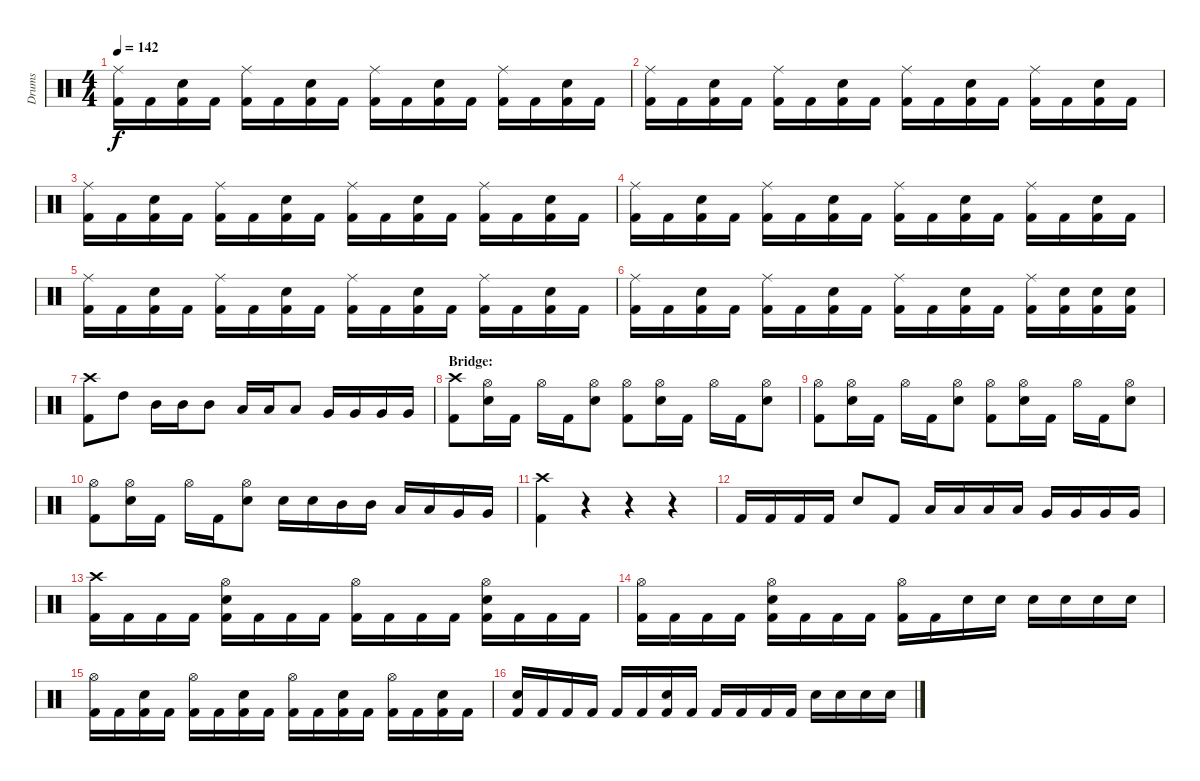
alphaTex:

\track ("Drums" "Drums") {instrument percussion}
\staff {score}
\articulation defaults
\ts (4 4)
\tempo 142
\clef neutral
\ks c
("Ride (middle)" "Kick (hit) 2").16{dy f} "Kick (hit) 2".16 ("Electric Snare (hit)" "Kick (hit) 2").16 "Kick (hit) 2".16 ("Ride (middle)" "Kick (hit) 2").16 "Kick (hit) 2".16 ("Electric Snare (hit)" "Kick (hit) 2").16 "Kick (hit) 2".16 ("Ride (middle)" "Kick (hit) 2").16 "Kick (hit) 2".16 ("Electric Snare (hit)" "Kick (hit) 2").16 "Kick (hit) 2".16 ("Ride (middle)" "Kick (hit) 2").16 "Kick (hit) 2".16 ("Electric Snare (hit)" "Kick (hit) 2").16 "Kick (hit) 2".16 |
("Ride (middle)" "Kick (hit) 2").16 "Kick (hit) 2".16 ("Electric Snare (hit)" "Kick (hit) 2").16 "Kick (hit) 2".16 ("Ride (middle)" "Kick (hit) 2").16 "Kick (hit) 2".16 ("Electric Snare (hit)" "Kick (hit) 2").16 "Kick (hit) 2".16 ("Ride (middle)" "Kick (hit) 2").16 "Kick (hit) 2".16 ("Electric Snare (hit)" "Kick (hit) 2").16 "Kick (hit) 2".16 ("Ride (middle)" "Kick (hit) 2").16 "Kick (hit) 2".16 ("Electric Snare (hit)" "Kick (hit) 2").16 "Kick (hit) 2".16 |
("Ride (middle)" "Kick (hit) 2").16 "Kick (hit) 2".16 ("Electric Snare (hit)" "Kick (hit) 2").16 "Kick (hit) 2".16 ("Ride (middle)" "Kick (hit) 2").16 "Kick (hit) 2".16 ("Electric Snare (hit)" "Kick (hit) 2").16 "Kick (hit) 2".16 ("Ride (middle)" "Kick (hit) 2").16 "Kick (hit) 2".16 ("Electric Snare (hit)" "Kick (hit) 2").16 "Kick (hit) 2".16 ("Ride (middle)" "Kick (hit) 2").16 "Kick (hit) 2".16 ("Electric Snare (hit)" "Kick (hit) 2").16 "Kick (hit) 2".16 |
("Ride (middle)" "Kick (hit) 2").16 "Kick (hit) 2".16 ("Electric Snare (hit)" "Kick (hit) 2").16 "Kick (hit) 2".16 ("Ride (middle)" "Kick (hit) 2").16 "Kick (hit) 2".16 ("Electric Snare (hit)" "Kick (hit) 2").16 "Kick (hit) 2".16 ("Ride (middle)" "Kick (hit) 2").16 "Kick (hit) 2".16 ("Electric Snare (hit)" "Kick (hit) 2").16 "Kick (hit) 2".16 ("Ride (middle)" "Kick (hit) 2").16 "Kick (hit) 2".16 ("Electric Snare (hit)" "Kick (hit) 2").16 "Kick (hit) 2".16 |
("Ride (middle)" "Kick (hit) 2").16 "Kick (hit) 2".16 ("Electric Snare (hit)" "Kick (hit) 2").16 "Kick (hit) 2".16 ("Ride (middle)" "Kick (hit) 2").16 "Kick (hit) 2".16 ("Electric Snare (hit)" "Kick (hit) 2").16 "Kick (hit) 2".16 ("Ride (middle)" "Kick (hit) 2").16 "Kick (hit) 2".16 ("Electric Snare (hit)" "Kick (hit) 2").16 "Kick (hit) 2".16 ("Ride (middle)" "Kick (hit) 2").16 "Kick (hit) 2".16 ("Electric Snare (hit)" "Kick (hit) 2").16 "Kick (hit) 2".16 |
("Ride (middle)" "Kick (hit) 2").16 "Kick (hit) 2".16 ("Electric Snare (hit)" "Kick (hit) 2").16 "Kick (hit) 2".16 ("Ride (middle)" "Kick (hit) 2").16 "Kick (hit) 2".16 ("Electric Snare (hit)" "Kick (hit) 2").16 "Kick (hit) 2".16 ("Ride (middle)" "Kick (hit) 2").16 "Kick (hit) 2".16 ("Electric Snare (hit)" "Kick (hit) 2").16 "Kick (hit) 2".16 ("Ride (middle)" "Kick (hit) 2").16 ("Electric Snare (hit)" "Kick (hit) 2").16 ("Electric Snare (hit)" "Kick (hit) 2").16 ("Electric Snare (hit)" "Kick (hit) 2").16 |
("Crash high (hit)" "Kick (hit) 2").8 "High Tom (hit)".8 "Mid Tom (hit)".16 "Mid Tom (hit)".16 "Mid Tom (hit)".8 "Low Tom (hit)".16 "Low Tom (hit)".16 "Low Tom (hit)".8 "Very Low Tom (hit)".16 "Very Low Tom (hit)".16 "Very Low Tom (hit)".16 "Very Low Tom (hit)".16 |
\section ("" "Bridge:")
("Crash high (hit)" "Kick (hit) 2").8 ("Hi-Hat (open)" "Electric Snare (hit)").16 "Kick (hit) 2".16 "Hi-Hat (open)".16 "Kick (hit) 2".16 ("Hi-Hat (open)" "Electric Snare (hit)").8 ("Hi-Hat (open)" "Kick (hit) 2").8 ("Hi-Hat (open)" "Electric Snare (hit)").16 "Kick (hit) 2".16 "Hi-Hat (open)".16 "Kick (hit) 2".16 ("Hi-Hat (open)" "Electric Snare (hit)").8 |
("Hi-Hat (open)" "Kick (hit) 2").8 ("Hi-Hat (open)" "Electric Snare (hit)").16 "Kick (hit) 2".16 "Hi-Hat (open)".16 "Kick (hit) 2".16 ("Hi-Hat (open)" "Electric Snare (hit)").8 ("Hi-Hat (open)" "Kick (hit) 2").8 ("Hi-Hat (open)" "Electric Snare (hit)").16 "Kick (hit) 2".16 "Hi-Hat (open)".16 "Kick (hit) 2".16 ("Hi-Hat (open)" "Electric Snare (hit)").8 |
("Hi-Hat (open)" "Kick (hit) 2").8 ("Hi-Hat (open)" "Electric Snare (hit)").16 "Kick (hit) 2".16 "Hi-Hat (open)".16 "Kick (hit) 2".16 ("Hi-Hat (open)" "Electric Snare (hit)").8 "Electric Snare (hit)".16 "Electric Snare (hit)".16 "Mid Tom (hit)".16 "Mid Tom (hit)".16 "Low Tom (hit)".16 "Low Tom (hit)".16 "Very Low Tom (hit)".16 "Very Low Tom (hit)".16 |
("Crash high (hit)" "Kick (hit) 2").4 r.4 r.4 r.4 |
"Kick (hit) 2".16 "Kick (hit) 2".16 "Kick (hit) 2".16 "Kick (hit) 2".16 "Electric Snare (hit)".8 "Kick (hit) 2".8 "Low Tom (hit)".16 "Low Tom (hit)".16 "Low Tom (hit)".16 "Low Tom (hit)".16 "Very Low Tom (hit)".16 "Very Low Tom (hit)".16 "Very Low Tom (hit)".16 "Very Low Tom (hit)".16 |
("Crash high (hit)" "Kick (hit) 2").16 "Kick (hit) 2".16 "Kick (hit) 2".16 "Kick (hit) 2".16 ("Hi-Hat (open)" "Electric Snare (hit)" "Kick (hit) 2").16 "Kick (hit) 2".16 "Kick (hit) 2".16 "Kick (hit) 2".16 ("Hi-Hat (open)" "Kick (hit) 2").16 "Kick (hit) 2".16 "Kick (hit) 2".16 "Kick (hit) 2".16 ("Hi-Hat (open)" "Electric Snare (hit)" "Kick (hit) 2").16 "Kick (hit) 2".16 "Kick (hit) 2".16 "Kick (hit) 2".16 |
("Hi-Hat (open)" "Kick (hit) 2").16 "Kick (hit) 2".16 "Kick (hit) 2".16 "Kick (hit) 2".16 ("Hi-Hat (open)" "Electric Snare (hit)" "Kick (hit) 2").16 "Kick (hit) 2".16 "Kick (hit) 2".16 "Kick (hit) 2".16 ("Hi-Hat (open)" "Kick (hit) 2").16 "Kick (hit) 2".16 "Electric Snare (hit)".16 "Electric Snare (hit)".16 "Electric Snare (hit)".16 "Electric Snare (hit)".16 "Electric Snare (hit)".16 "Electric Snare (hit)".16 |
("Hi-Hat (open)" "Kick (hit) 2").16 "Kick (hit) 2".16 ("Electric Snare (hit)" "Kick (hit) 2").16 "Kick (hit) 2".16 ("Hi-Hat (open)" "Kick (hit) 2").16 "Kick (hit) 2".16 ("Electric Snare (hit)" "Kick (hit) 2").16 "Kick (hit) 2".16 ("Hi-Hat (open)" "Kick (hit) 2").16 "Kick (hit) 2".16 ("Electric Snare (hit)" "Kick (hit) 2").16 "Kick (hit) 2".16 ("Hi-Hat (open)" "Kick (hit) 2").16 "Kick (hit) 2".16 ("Electric Snare (hit)" "Kick (hit) 2").16 "Kick (hit) 2".16 |
("Electric Snare (hit)" "Kick (hit) 2").16 "Kick (hit) 2".16 "Kick (hit) 2".16 "Kick (hit) 2".16 "Kick (hit) 2".16 "Kick (hit) 2".16 ("Electric Snare (hit)" "Kick (hit) 2").16 "Kick (hit) 2".16 "Kick (hit) 2".16 "Kick (hit) 2".16 "Kick (hit) 2".16 "Kick (hit) 2".16 "Electric Snare (hit)".16 "Electric Snare (hit)".16 "Electric Snare (hit)".16 "Electric Snare (hit)".16
